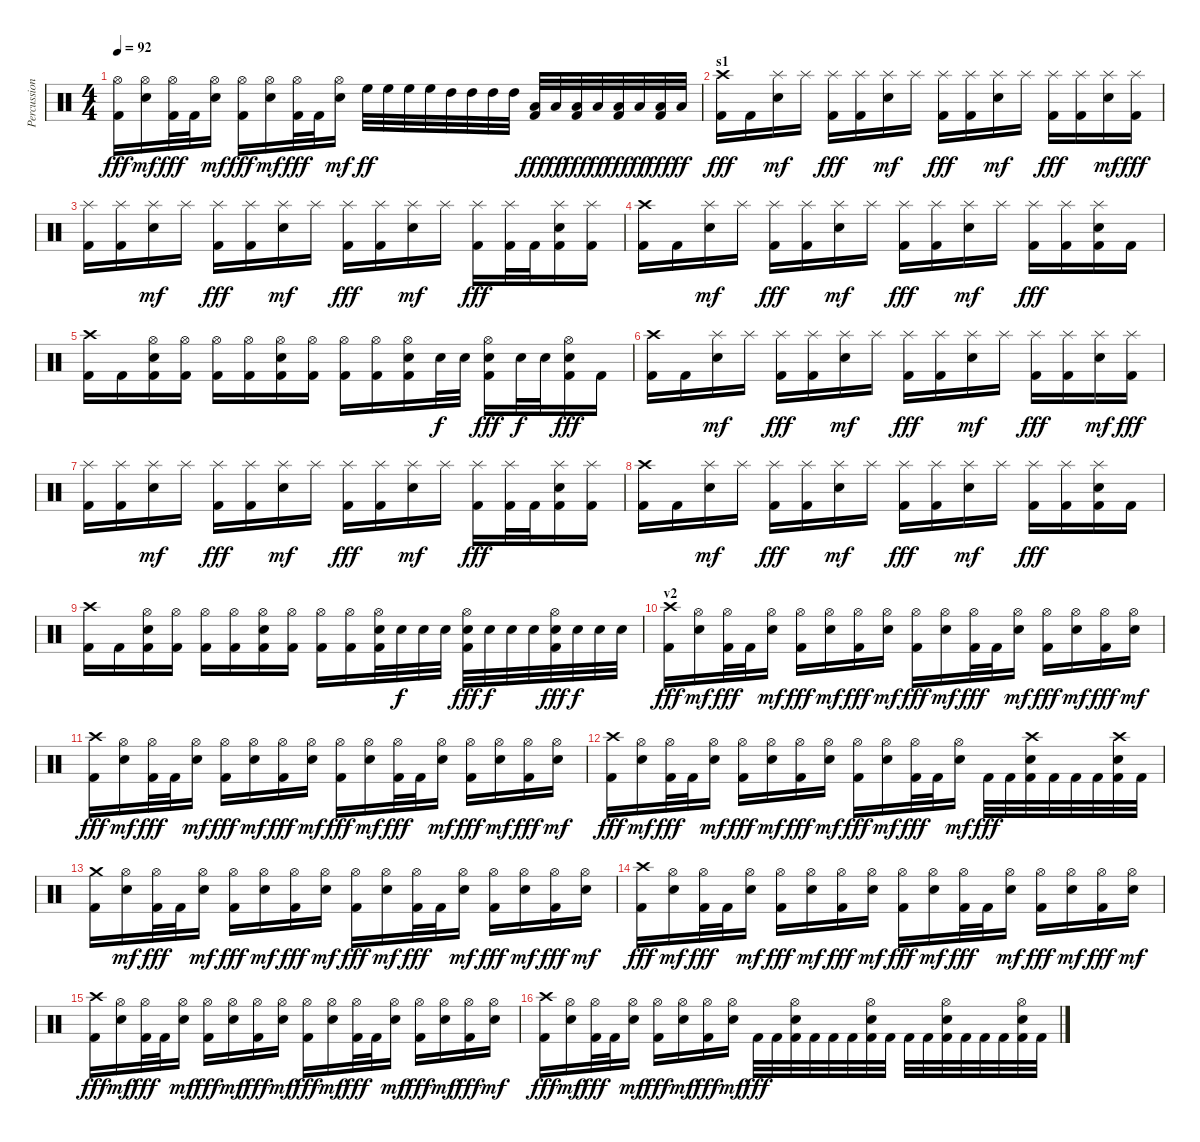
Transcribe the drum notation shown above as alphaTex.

\track ("Percussion" "Percussion") {instrument percussion}
\staff {score}
\articulation defaults
\ts (4 4)
\tempo 92
\clef neutral
\ks c
("Hi-Hat (open)" "Kick (hit) 2").16{dy fff} ("Hi-Hat (open)" "Electric Snare (hit)").16{dy mf} ("Hi-Hat (open)" "Kick (hit) 2").32{dy fff} "Kick (hit) 2".32 ("Hi-Hat (open)" "Electric Snare (hit)").16{dy mf} ("Hi-Hat (open)" "Kick (hit) 2").16{dy fff} ("Hi-Hat (open)" "Electric Snare (hit)").16{dy mf} ("Hi-Hat (open)" "Kick (hit) 2").32{dy fff} "Kick (hit) 2".32 ("Hi-Hat (open)" "Electric Snare (hit)").16{dy mf} "High Floor Tom (hit)".32{dy ff} "High Floor Tom (hit)".32 "High Floor Tom (hit)".32 "High Floor Tom (hit)".32 "High Tom (hit)".32 "High Tom (hit)".32 "High Tom (hit)".32 "High Tom (hit)".32 ("Low Tom (hit)" "Kick (hit) 2").32{dy fff} "Low Tom (hit)".32{dy ff} ("Low Tom (hit)" "Kick (hit) 2").32{dy fff} "Low Tom (hit)".32{dy ff} ("Low Floor Tom (hit)" "Kick (hit) 2").32{dy fff} "Low Floor Tom (hit)".32{dy ff} ("Low Floor Tom (hit)" "Kick (hit) 2").32{dy fff} "Low Floor Tom (hit)".32{dy ff} |
\section ("" "s1")
("Crash high (hit)" "Kick (hit) 2").16{dy fff} "Kick (hit) 2".16 ("Splash (hit)" "Electric Snare (hit)").16{dy mf} "Splash (hit)".16 ("Splash (hit)" "Kick (hit) 2").16{dy fff} ("Splash (hit)" "Kick (hit) 2").16 ("Splash (hit)" "Electric Snare (hit)").16{dy mf} "Splash (hit)".16 ("Splash (hit)" "Kick (hit) 2").16{dy fff} ("Splash (hit)" "Kick (hit) 2").16 ("Splash (hit)" "Electric Snare (hit)").16{dy mf} "Splash (hit)".16 ("Splash (hit)" "Kick (hit) 2").16{dy fff} ("Splash (hit)" "Kick (hit) 2").16 ("Splash (hit)" "Electric Snare (hit)").16{dy mf} ("Splash (hit)" "Kick (hit) 2").16{dy fff} |
("Splash (hit)" "Kick (hit) 2").16 ("Splash (hit)" "Kick (hit) 2").16 ("Splash (hit)" "Electric Snare (hit)").16{dy mf} "Splash (hit)".16 ("Splash (hit)" "Kick (hit) 2").16{dy fff} ("Splash (hit)" "Kick (hit) 2").16 ("Splash (hit)" "Electric Snare (hit)").16{dy mf} "Splash (hit)".16 ("Splash (hit)" "Kick (hit) 2").16{dy fff} ("Splash (hit)" "Kick (hit) 2").16 ("Splash (hit)" "Electric Snare (hit)").16{dy mf} "Splash (hit)".16 ("Splash (hit)" "Kick (hit) 2").16{dy fff} ("Splash (hit)" "Kick (hit) 2").32 "Kick (hit) 2".32 ("Splash (hit)" "Electric Snare (hit)" "Kick (hit) 2").16 ("Splash (hit)" "Kick (hit) 2").16 |
("Crash high (hit)" "Kick (hit) 2").16 "Kick (hit) 2".16 ("Splash (hit)" "Electric Snare (hit)").16{dy mf} "Splash (hit)".16 ("Splash (hit)" "Kick (hit) 2").16{dy fff} ("Splash (hit)" "Kick (hit) 2").16 ("Splash (hit)" "Electric Snare (hit)").16{dy mf} "Splash (hit)".16 ("Splash (hit)" "Kick (hit) 2").16{dy fff} ("Splash (hit)" "Kick (hit) 2").16 ("Splash (hit)" "Electric Snare (hit)").16{dy mf} "Splash (hit)".16 ("Splash (hit)" "Kick (hit) 2").16{dy fff} ("Splash (hit)" "Kick (hit) 2").16 ("Splash (hit)" "Electric Snare (hit)" "Kick (hit) 2").16 "Kick (hit) 2".16 |
("Crash high (hit)" "Kick (hit) 2").16 "Kick (hit) 2".16 ("Hi-Hat (open)" "Electric Snare (hit)" "Kick (hit) 2").16 ("Hi-Hat (open)" "Kick (hit) 2").16 ("Hi-Hat (open)" "Kick (hit) 2").16 ("Hi-Hat (open)" "Kick (hit) 2").16 ("Hi-Hat (open)" "Electric Snare (hit)" "Kick (hit) 2").16 ("Hi-Hat (open)" "Kick (hit) 2").16 ("Hi-Hat (open)" "Kick (hit) 2").16 ("Hi-Hat (open)" "Kick (hit) 2").16 ("Hi-Hat (open)" "Electric Snare (hit)" "Kick (hit) 2").16 "Electric Snare (hit)".32{dy f} "Electric Snare (hit)".32 ("Hi-Hat (open)" "Electric Snare (hit)" "Kick (hit) 2").16{dy fff} "Electric Snare (hit)".32{dy f} "Electric Snare (hit)".32 ("Hi-Hat (open)" "Electric Snare (hit)" "Kick (hit) 2").16{dy fff} "Kick (hit) 2".16 |
("Crash high (hit)" "Kick (hit) 2").16 "Kick (hit) 2".16 ("Splash (hit)" "Electric Snare (hit)").16{dy mf} "Splash (hit)".16 ("Splash (hit)" "Kick (hit) 2").16{dy fff} ("Splash (hit)" "Kick (hit) 2").16 ("Splash (hit)" "Electric Snare (hit)").16{dy mf} "Splash (hit)".16 ("Splash (hit)" "Kick (hit) 2").16{dy fff} ("Splash (hit)" "Kick (hit) 2").16 ("Splash (hit)" "Electric Snare (hit)").16{dy mf} "Splash (hit)".16 ("Splash (hit)" "Kick (hit) 2").16{dy fff} ("Splash (hit)" "Kick (hit) 2").16 ("Splash (hit)" "Electric Snare (hit)").16{dy mf} ("Splash (hit)" "Kick (hit) 2").16{dy fff} |
("Splash (hit)" "Kick (hit) 2").16 ("Splash (hit)" "Kick (hit) 2").16 ("Splash (hit)" "Electric Snare (hit)").16{dy mf} "Splash (hit)".16 ("Splash (hit)" "Kick (hit) 2").16{dy fff} ("Splash (hit)" "Kick (hit) 2").16 ("Splash (hit)" "Electric Snare (hit)").16{dy mf} "Splash (hit)".16 ("Splash (hit)" "Kick (hit) 2").16{dy fff} ("Splash (hit)" "Kick (hit) 2").16 ("Splash (hit)" "Electric Snare (hit)").16{dy mf} "Splash (hit)".16 ("Splash (hit)" "Kick (hit) 2").16{dy fff} ("Splash (hit)" "Kick (hit) 2").32 "Kick (hit) 2".32 ("Splash (hit)" "Electric Snare (hit)" "Kick (hit) 2").16 ("Splash (hit)" "Kick (hit) 2").16 |
("Crash high (hit)" "Kick (hit) 2").16 "Kick (hit) 2".16 ("Splash (hit)" "Electric Snare (hit)").16{dy mf} "Splash (hit)".16 ("Splash (hit)" "Kick (hit) 2").16{dy fff} ("Splash (hit)" "Kick (hit) 2").16 ("Splash (hit)" "Electric Snare (hit)").16{dy mf} "Splash (hit)".16 ("Splash (hit)" "Kick (hit) 2").16{dy fff} ("Splash (hit)" "Kick (hit) 2").16 ("Splash (hit)" "Electric Snare (hit)").16{dy mf} "Splash (hit)".16 ("Splash (hit)" "Kick (hit) 2").16{dy fff} ("Splash (hit)" "Kick (hit) 2").16 ("Splash (hit)" "Electric Snare (hit)" "Kick (hit) 2").16 "Kick (hit) 2".16 |
("Crash high (hit)" "Kick (hit) 2").16 "Kick (hit) 2".16 ("Hi-Hat (open)" "Electric Snare (hit)" "Kick (hit) 2").16 ("Hi-Hat (open)" "Kick (hit) 2").16 ("Hi-Hat (open)" "Kick (hit) 2").16 ("Hi-Hat (open)" "Kick (hit) 2").16 ("Hi-Hat (open)" "Electric Snare (hit)" "Kick (hit) 2").16 ("Hi-Hat (open)" "Kick (hit) 2").16 ("Hi-Hat (open)" "Kick (hit) 2").16 ("Hi-Hat (open)" "Kick (hit) 2").16 ("Hi-Hat (open)" "Electric Snare (hit)" "Kick (hit) 2").32 "Electric Snare (hit)".32{dy f} "Electric Snare (hit)".32 "Electric Snare (hit)".32 ("Hi-Hat (open)" "Electric Snare (hit)" "Kick (hit) 2").32{dy fff} "Electric Snare (hit)".32{dy f} "Electric Snare (hit)".32 "Electric Snare (hit)".32 ("Hi-Hat (open)" "Electric Snare (hit)" "Kick (hit) 2").32{dy fff} "Electric Snare (hit)".32{dy f} "Electric Snare (hit)".32 "Electric Snare (hit)".32 |
\section ("" "v2")
("Crash high (hit)" "Kick (hit) 2").16{dy fff} ("Hi-Hat (open)" "Electric Snare (hit)").16{dy mf} ("Hi-Hat (open)" "Kick (hit) 2").32{dy fff} "Kick (hit) 2".32 ("Hi-Hat (open)" "Electric Snare (hit)").16{dy mf} ("Hi-Hat (open)" "Kick (hit) 2").16{dy fff} ("Hi-Hat (open)" "Electric Snare (hit)").16{dy mf} ("Hi-Hat (open)" "Kick (hit) 2").16{dy fff} ("Hi-Hat (open)" "Electric Snare (hit)").16{dy mf} ("Hi-Hat (open)" "Kick (hit) 2").16{dy fff} ("Hi-Hat (open)" "Electric Snare (hit)").16{dy mf} ("Hi-Hat (open)" "Kick (hit) 2").32{dy fff} "Kick (hit) 2".32 ("Hi-Hat (open)" "Electric Snare (hit)").16{dy mf} ("Hi-Hat (open)" "Kick (hit) 2").16{dy fff} ("Hi-Hat (open)" "Electric Snare (hit)").16{dy mf} ("Hi-Hat (open)" "Kick (hit) 2").16{dy fff} ("Hi-Hat (open)" "Electric Snare (hit)").16{dy mf} |
("Crash high (hit)" "Kick (hit) 2").16{dy fff} ("Hi-Hat (open)" "Electric Snare (hit)").16{dy mf} ("Hi-Hat (open)" "Kick (hit) 2").32{dy fff} "Kick (hit) 2".32 ("Hi-Hat (open)" "Electric Snare (hit)").16{dy mf} ("Hi-Hat (open)" "Kick (hit) 2").16{dy fff} ("Hi-Hat (open)" "Electric Snare (hit)").16{dy mf} ("Hi-Hat (open)" "Kick (hit) 2").16{dy fff} ("Hi-Hat (open)" "Electric Snare (hit)").16{dy mf} ("Hi-Hat (open)" "Kick (hit) 2").16{dy fff} ("Hi-Hat (open)" "Electric Snare (hit)").16{dy mf} ("Hi-Hat (open)" "Kick (hit) 2").32{dy fff} "Kick (hit) 2".32 ("Hi-Hat (open)" "Electric Snare (hit)").16{dy mf} ("Hi-Hat (open)" "Kick (hit) 2").16{dy fff} ("Hi-Hat (open)" "Electric Snare (hit)").16{dy mf} ("Hi-Hat (open)" "Kick (hit) 2").16{dy fff} ("Hi-Hat (open)" "Electric Snare (hit)").16{dy mf} |
("Crash high (hit)" "Kick (hit) 2").16{dy fff} ("Hi-Hat (open)" "Electric Snare (hit)").16{dy mf} ("Hi-Hat (open)" "Kick (hit) 2").32{dy fff} "Kick (hit) 2".32 ("Hi-Hat (open)" "Electric Snare (hit)").16{dy mf} ("Hi-Hat (open)" "Kick (hit) 2").16{dy fff} ("Hi-Hat (open)" "Electric Snare (hit)").16{dy mf} ("Hi-Hat (open)" "Kick (hit) 2").16{dy fff} ("Hi-Hat (open)" "Electric Snare (hit)").16{dy mf} ("Hi-Hat (open)" "Kick (hit) 2").16{dy fff} ("Hi-Hat (open)" "Electric Snare (hit)").16{dy mf} ("Hi-Hat (open)" "Kick (hit) 2").32{dy fff} "Kick (hit) 2".32 ("Hi-Hat (open)" "Electric Snare (hit)").16{dy mf} "Kick (hit) 2".32{dy fff} "Kick (hit) 2".32 ("Crash high (hit)" "Electric Snare (hit)" "Kick (hit) 2").32 "Kick (hit) 2".32 "Kick (hit) 2".32 "Kick (hit) 2".32 ("Crash high (hit)" "Electric Snare (hit)" "Kick (hit) 2").32 "Kick (hit) 2".32 |
("Crash medium (hit)" "Kick (hit) 2").16 ("Hi-Hat (open)" "Electric Snare (hit)").16{dy mf} ("Hi-Hat (open)" "Kick (hit) 2").32{dy fff} "Kick (hit) 2".32 ("Hi-Hat (open)" "Electric Snare (hit)").16{dy mf} ("Hi-Hat (open)" "Kick (hit) 2").16{dy fff} ("Hi-Hat (open)" "Electric Snare (hit)").16{dy mf} ("Hi-Hat (open)" "Kick (hit) 2").16{dy fff} ("Hi-Hat (open)" "Electric Snare (hit)").16{dy mf} ("Hi-Hat (open)" "Kick (hit) 2").16{dy fff} ("Hi-Hat (open)" "Electric Snare (hit)").16{dy mf} ("Hi-Hat (open)" "Kick (hit) 2").32{dy fff} "Kick (hit) 2".32 ("Hi-Hat (open)" "Electric Snare (hit)").16{dy mf} ("Hi-Hat (open)" "Kick (hit) 2").16{dy fff} ("Hi-Hat (open)" "Electric Snare (hit)").16{dy mf} ("Hi-Hat (open)" "Kick (hit) 2").16{dy fff} ("Hi-Hat (open)" "Electric Snare (hit)").16{dy mf} |
("Crash high (hit)" "Kick (hit) 2").16{dy fff} ("Hi-Hat (open)" "Electric Snare (hit)").16{dy mf} ("Hi-Hat (open)" "Kick (hit) 2").32{dy fff} "Kick (hit) 2".32 ("Hi-Hat (open)" "Electric Snare (hit)").16{dy mf} ("Hi-Hat (open)" "Kick (hit) 2").16{dy fff} ("Hi-Hat (open)" "Electric Snare (hit)").16{dy mf} ("Hi-Hat (open)" "Kick (hit) 2").16{dy fff} ("Hi-Hat (open)" "Electric Snare (hit)").16{dy mf} ("Hi-Hat (open)" "Kick (hit) 2").16{dy fff} ("Hi-Hat (open)" "Electric Snare (hit)").16{dy mf} ("Hi-Hat (open)" "Kick (hit) 2").32{dy fff} "Kick (hit) 2".32 ("Hi-Hat (open)" "Electric Snare (hit)").16{dy mf} ("Hi-Hat (open)" "Kick (hit) 2").16{dy fff} ("Hi-Hat (open)" "Electric Snare (hit)").16{dy mf} ("Hi-Hat (open)" "Kick (hit) 2").16{dy fff} ("Hi-Hat (open)" "Electric Snare (hit)").16{dy mf} |
("Crash high (hit)" "Kick (hit) 2").16{dy fff} ("Hi-Hat (open)" "Electric Snare (hit)").16{dy mf} ("Hi-Hat (open)" "Kick (hit) 2").32{dy fff} "Kick (hit) 2".32 ("Hi-Hat (open)" "Electric Snare (hit)").16{dy mf} ("Hi-Hat (open)" "Kick (hit) 2").16{dy fff} ("Hi-Hat (open)" "Electric Snare (hit)").16{dy mf} ("Hi-Hat (open)" "Kick (hit) 2").16{dy fff} ("Hi-Hat (open)" "Electric Snare (hit)").16{dy mf} ("Hi-Hat (open)" "Kick (hit) 2").16{dy fff} ("Hi-Hat (open)" "Electric Snare (hit)").16{dy mf} ("Hi-Hat (open)" "Kick (hit) 2").32{dy fff} "Kick (hit) 2".32 ("Hi-Hat (open)" "Electric Snare (hit)").16{dy mf} ("Hi-Hat (open)" "Kick (hit) 2").16{dy fff} ("Hi-Hat (open)" "Electric Snare (hit)").16{dy mf} ("Hi-Hat (open)" "Kick (hit) 2").16{dy fff} ("Hi-Hat (open)" "Electric Snare (hit)").16{dy mf} |
("Crash high (hit)" "Kick (hit) 2").16{dy fff} ("Hi-Hat (open)" "Electric Snare (hit)").16{dy mf} ("Hi-Hat (open)" "Kick (hit) 2").32{dy fff} "Kick (hit) 2".32 ("Hi-Hat (open)" "Electric Snare (hit)").16{dy mf} ("Hi-Hat (open)" "Kick (hit) 2").16{dy fff} ("Hi-Hat (open)" "Electric Snare (hit)").16{dy mf} ("Hi-Hat (open)" "Kick (hit) 2").16{dy fff} ("Hi-Hat (open)" "Electric Snare (hit)").16{dy mf} "Kick (hit) 2".32{dy fff} "Kick (hit) 2".32 ("Hi-Hat (open)" "Electric Snare (hit)" "Kick (hit) 2").32 "Kick (hit) 2".32 "Kick (hit) 2".32 "Kick (hit) 2".32 ("Hi-Hat (open)" "Electric Snare (hit)" "Kick (hit) 2").32 "Kick (hit) 2".32 "Kick (hit) 2".32 "Kick (hit) 2".32 ("Hi-Hat (open)" "Electric Snare (hit)" "Kick (hit) 2").32 "Kick (hit) 2".32 "Kick (hit) 2".32 "Kick (hit) 2".32 ("Hi-Hat (open)" "Electric Snare (hit)" "Kick (hit) 2").32 "Kick (hit) 2".32
